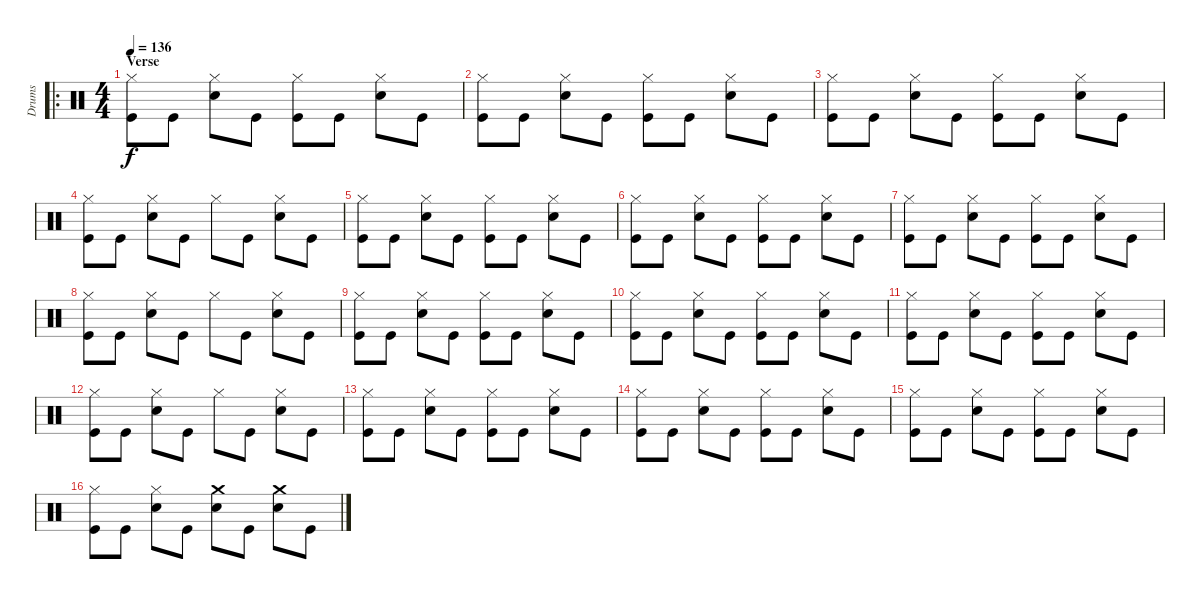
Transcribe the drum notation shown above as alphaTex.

\track ("Drums" "Drums") {instrument percussion}
\staff {score}
\articulation defaults
\ro
\ts (4 4)
\section ("" "Verse")
\tempo 136
\clef neutral
\ks c
("Hi-Hat (closed)" "Kick (hit)").8{dy f} "Kick (hit)".8 ("Hi-Hat (closed)" "Snare (hit) 2").8 "Kick (hit)".8 ("Hi-Hat (closed)" "Kick (hit)").8 "Kick (hit)".8 ("Hi-Hat (closed)" "Snare (hit) 2").8 "Kick (hit)".8 |
("Hi-Hat (closed)" "Kick (hit)").8 "Kick (hit)".8 ("Hi-Hat (closed)" "Snare (hit) 2").8 "Kick (hit)".8 ("Hi-Hat (closed)" "Kick (hit)").8 "Kick (hit)".8 ("Hi-Hat (closed)" "Snare (hit) 2").8 "Kick (hit)".8 |
("Hi-Hat (closed)" "Kick (hit)").8 "Kick (hit)".8 ("Hi-Hat (closed)" "Snare (hit) 2").8 "Kick (hit)".8 ("Hi-Hat (closed)" "Kick (hit)").8 "Kick (hit)".8 ("Hi-Hat (closed)" "Snare (hit) 2").8 "Kick (hit)".8 |
("Hi-Hat (closed)" "Kick (hit)").8 "Kick (hit)".8 ("Hi-Hat (closed)" "Snare (hit) 2").8 "Kick (hit)".8 "Hi-Hat (closed)".8 "Kick (hit)".8 ("Hi-Hat (closed)" "Snare (hit) 2").8 "Kick (hit)".8 |
("Hi-Hat (closed)" "Kick (hit)").8 "Kick (hit)".8 ("Hi-Hat (closed)" "Snare (hit) 2").8 "Kick (hit)".8 ("Hi-Hat (closed)" "Kick (hit)").8 "Kick (hit)".8 ("Hi-Hat (closed)" "Snare (hit) 2").8 "Kick (hit)".8 |
("Hi-Hat (closed)" "Kick (hit)").8 "Kick (hit)".8 ("Hi-Hat (closed)" "Snare (hit) 2").8 "Kick (hit)".8 ("Hi-Hat (closed)" "Kick (hit)").8 "Kick (hit)".8 ("Hi-Hat (closed)" "Snare (hit) 2").8 "Kick (hit)".8 |
("Hi-Hat (closed)" "Kick (hit)").8 "Kick (hit)".8 ("Hi-Hat (closed)" "Snare (hit) 2").8 "Kick (hit)".8 ("Hi-Hat (closed)" "Kick (hit)").8 "Kick (hit)".8 ("Hi-Hat (closed)" "Snare (hit) 2").8 "Kick (hit)".8 |
("Hi-Hat (closed)" "Kick (hit)").8 "Kick (hit)".8 ("Hi-Hat (closed)" "Snare (hit) 2").8 "Kick (hit)".8 "Hi-Hat (closed)".8 "Kick (hit)".8 ("Hi-Hat (closed)" "Snare (hit) 2").8 "Kick (hit)".8 |
("Hi-Hat (closed)" "Kick (hit)").8 "Kick (hit)".8 ("Hi-Hat (closed)" "Snare (hit) 2").8 "Kick (hit)".8 ("Hi-Hat (closed)" "Kick (hit)").8 "Kick (hit)".8 ("Hi-Hat (closed)" "Snare (hit) 2").8 "Kick (hit)".8 |
("Hi-Hat (closed)" "Kick (hit)").8 "Kick (hit)".8 ("Hi-Hat (closed)" "Snare (hit) 2").8 "Kick (hit)".8 ("Hi-Hat (closed)" "Kick (hit)").8 "Kick (hit)".8 ("Hi-Hat (closed)" "Snare (hit) 2").8 "Kick (hit)".8 |
("Hi-Hat (closed)" "Kick (hit)").8 "Kick (hit)".8 ("Hi-Hat (closed)" "Snare (hit) 2").8 "Kick (hit)".8 ("Hi-Hat (closed)" "Kick (hit)").8 "Kick (hit)".8 ("Hi-Hat (closed)" "Snare (hit) 2").8 "Kick (hit)".8 |
("Hi-Hat (closed)" "Kick (hit)").8 "Kick (hit)".8 ("Hi-Hat (closed)" "Snare (hit) 2").8 "Kick (hit)".8 "Hi-Hat (closed)".8 "Kick (hit)".8 ("Hi-Hat (closed)" "Snare (hit) 2").8 "Kick (hit)".8 |
("Hi-Hat (closed)" "Kick (hit)").8 "Kick (hit)".8 ("Hi-Hat (closed)" "Snare (hit) 2").8 "Kick (hit)".8 ("Hi-Hat (closed)" "Kick (hit)").8 "Kick (hit)".8 ("Hi-Hat (closed)" "Snare (hit) 2").8 "Kick (hit)".8 |
("Hi-Hat (closed)" "Kick (hit)").8 "Kick (hit)".8 ("Hi-Hat (closed)" "Snare (hit) 2").8 "Kick (hit)".8 ("Hi-Hat (closed)" "Kick (hit)").8 "Kick (hit)".8 ("Hi-Hat (closed)" "Snare (hit) 2").8 "Kick (hit)".8 |
("Hi-Hat (closed)" "Kick (hit)").8 "Kick (hit)".8 ("Hi-Hat (closed)" "Snare (hit) 2").8 "Kick (hit)".8 ("Hi-Hat (closed)" "Kick (hit)").8 "Kick (hit)".8 ("Hi-Hat (closed)" "Snare (hit) 2").8 "Kick (hit)".8 |
("Hi-Hat (closed)" "Kick (hit)").8 "Kick (hit)".8 ("Hi-Hat (closed)" "Snare (hit) 2").8 "Kick (hit)".8 ("Crash medium (hit)" "Snare (hit) 2").8 "Kick (hit)".8 ("Crash medium (hit)" "Snare (hit) 2").8 "Kick (hit)".8
